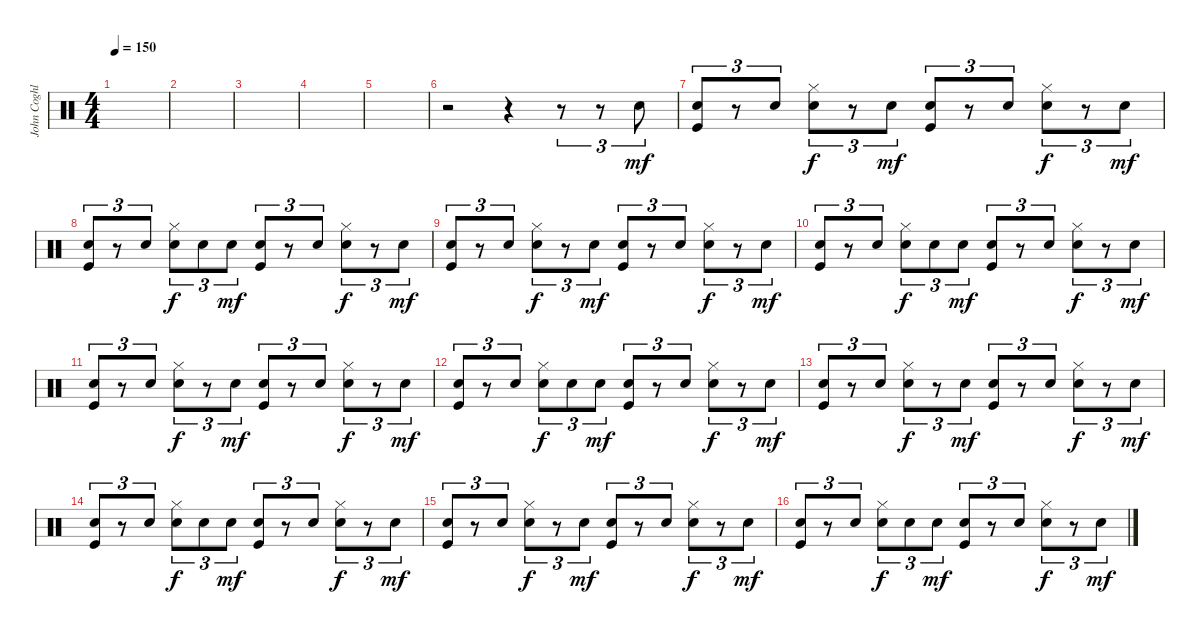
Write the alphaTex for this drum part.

\track ("John Coghlan" "John Coghl") {instrument percussion}
\staff {score}
\articulation defaults
\ts (4 4)
\tempo 150
\clef neutral
\ks c
|
|
|
|
|
r.2 r.4 r.8{tu (3 2)} r.8{tu (3 2)} "Electric Snare (hit)".8{tu (3 2) dy mf} |
("Electric Snare (hit)" "Kick (hit)").8{tu (3 2)} r.8{tu (3 2)} "Electric Snare (hit)".8{tu (3 2)} ("Hi-Hat (closed)" "Electric Snare (hit)").8{tu (3 2) dy f} r.8{tu (3 2)} "Electric Snare (hit)".8{tu (3 2) dy mf} ("Electric Snare (hit)" "Kick (hit)").8{tu (3 2)} r.8{tu (3 2)} "Electric Snare (hit)".8{tu (3 2)} ("Hi-Hat (closed)" "Electric Snare (hit)").8{tu (3 2) dy f} r.8{tu (3 2)} "Electric Snare (hit)".8{tu (3 2) dy mf} |
("Electric Snare (hit)" "Kick (hit)").8{tu (3 2)} r.8{tu (3 2)} "Electric Snare (hit)".8{tu (3 2)} ("Hi-Hat (closed)" "Electric Snare (hit)").8{tu (3 2) dy f} "Electric Snare (hit)".8{tu (3 2)} "Electric Snare (hit)".8{tu (3 2) dy mf} ("Electric Snare (hit)" "Kick (hit)").8{tu (3 2)} r.8{tu (3 2)} "Electric Snare (hit)".8{tu (3 2)} ("Hi-Hat (closed)" "Electric Snare (hit)").8{tu (3 2) dy f} r.8{tu (3 2)} "Electric Snare (hit)".8{tu (3 2) dy mf} |
("Electric Snare (hit)" "Kick (hit)").8{tu (3 2)} r.8{tu (3 2)} "Electric Snare (hit)".8{tu (3 2)} ("Hi-Hat (closed)" "Electric Snare (hit)").8{tu (3 2) dy f} r.8{tu (3 2)} "Electric Snare (hit)".8{tu (3 2) dy mf} ("Electric Snare (hit)" "Kick (hit)").8{tu (3 2)} r.8{tu (3 2)} "Electric Snare (hit)".8{tu (3 2)} ("Hi-Hat (closed)" "Electric Snare (hit)").8{tu (3 2) dy f} r.8{tu (3 2)} "Electric Snare (hit)".8{tu (3 2) dy mf} |
("Electric Snare (hit)" "Kick (hit)").8{tu (3 2)} r.8{tu (3 2)} "Electric Snare (hit)".8{tu (3 2)} ("Hi-Hat (closed)" "Electric Snare (hit)").8{tu (3 2) dy f} "Electric Snare (hit)".8{tu (3 2)} "Electric Snare (hit)".8{tu (3 2) dy mf} ("Electric Snare (hit)" "Kick (hit)").8{tu (3 2)} r.8{tu (3 2)} "Electric Snare (hit)".8{tu (3 2)} ("Hi-Hat (closed)" "Electric Snare (hit)").8{tu (3 2) dy f} r.8{tu (3 2)} "Electric Snare (hit)".8{tu (3 2) dy mf} |
("Electric Snare (hit)" "Kick (hit)").8{tu (3 2)} r.8{tu (3 2)} "Electric Snare (hit)".8{tu (3 2)} ("Hi-Hat (closed)" "Electric Snare (hit)").8{tu (3 2) dy f} r.8{tu (3 2)} "Electric Snare (hit)".8{tu (3 2) dy mf} ("Electric Snare (hit)" "Kick (hit)").8{tu (3 2)} r.8{tu (3 2)} "Electric Snare (hit)".8{tu (3 2)} ("Hi-Hat (closed)" "Electric Snare (hit)").8{tu (3 2) dy f} r.8{tu (3 2)} "Electric Snare (hit)".8{tu (3 2) dy mf} |
("Electric Snare (hit)" "Kick (hit)").8{tu (3 2)} r.8{tu (3 2)} "Electric Snare (hit)".8{tu (3 2)} ("Hi-Hat (closed)" "Electric Snare (hit)").8{tu (3 2) dy f} "Electric Snare (hit)".8{tu (3 2)} "Electric Snare (hit)".8{tu (3 2) dy mf} ("Electric Snare (hit)" "Kick (hit)").8{tu (3 2)} r.8{tu (3 2)} "Electric Snare (hit)".8{tu (3 2)} ("Hi-Hat (closed)" "Electric Snare (hit)").8{tu (3 2) dy f} r.8{tu (3 2)} "Electric Snare (hit)".8{tu (3 2) dy mf} |
("Electric Snare (hit)" "Kick (hit)").8{tu (3 2)} r.8{tu (3 2)} "Electric Snare (hit)".8{tu (3 2)} ("Hi-Hat (closed)" "Electric Snare (hit)").8{tu (3 2) dy f} r.8{tu (3 2)} "Electric Snare (hit)".8{tu (3 2) dy mf} ("Electric Snare (hit)" "Kick (hit)").8{tu (3 2)} r.8{tu (3 2)} "Electric Snare (hit)".8{tu (3 2)} ("Hi-Hat (closed)" "Electric Snare (hit)").8{tu (3 2) dy f} r.8{tu (3 2)} "Electric Snare (hit)".8{tu (3 2) dy mf} |
("Electric Snare (hit)" "Kick (hit)").8{tu (3 2)} r.8{tu (3 2)} "Electric Snare (hit)".8{tu (3 2)} ("Hi-Hat (closed)" "Electric Snare (hit)").8{tu (3 2) dy f} "Electric Snare (hit)".8{tu (3 2)} "Electric Snare (hit)".8{tu (3 2) dy mf} ("Electric Snare (hit)" "Kick (hit)").8{tu (3 2)} r.8{tu (3 2)} "Electric Snare (hit)".8{tu (3 2)} ("Hi-Hat (closed)" "Electric Snare (hit)").8{tu (3 2) dy f} r.8{tu (3 2)} "Electric Snare (hit)".8{tu (3 2) dy mf} |
("Electric Snare (hit)" "Kick (hit)").8{tu (3 2)} r.8{tu (3 2)} "Electric Snare (hit)".8{tu (3 2)} ("Hi-Hat (closed)" "Electric Snare (hit)").8{tu (3 2) dy f} r.8{tu (3 2)} "Electric Snare (hit)".8{tu (3 2) dy mf} ("Electric Snare (hit)" "Kick (hit)").8{tu (3 2)} r.8{tu (3 2)} "Electric Snare (hit)".8{tu (3 2)} ("Hi-Hat (closed)" "Electric Snare (hit)").8{tu (3 2) dy f} r.8{tu (3 2)} "Electric Snare (hit)".8{tu (3 2) dy mf} |
("Electric Snare (hit)" "Kick (hit)").8{tu (3 2)} r.8{tu (3 2)} "Electric Snare (hit)".8{tu (3 2)} ("Hi-Hat (closed)" "Electric Snare (hit)").8{tu (3 2) dy f} "Electric Snare (hit)".8{tu (3 2)} "Electric Snare (hit)".8{tu (3 2) dy mf} ("Electric Snare (hit)" "Kick (hit)").8{tu (3 2)} r.8{tu (3 2)} "Electric Snare (hit)".8{tu (3 2)} ("Hi-Hat (closed)" "Electric Snare (hit)").8{tu (3 2) dy f} r.8{tu (3 2)} "Electric Snare (hit)".8{tu (3 2) dy mf}
